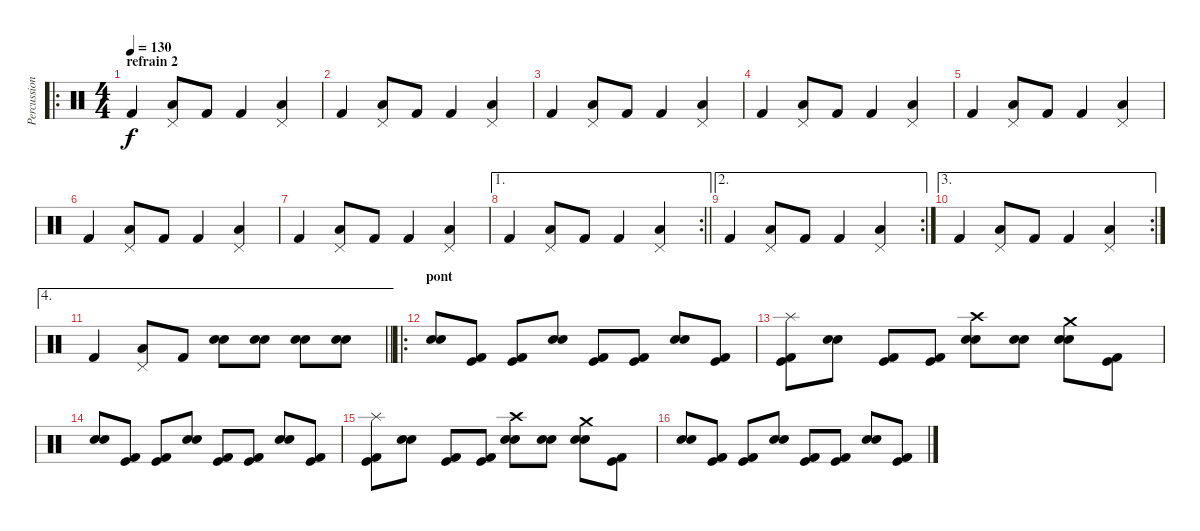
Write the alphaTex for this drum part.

\track ("Percussions" "Percussion") {instrument percussion}
\staff {score}
\articulation defaults
\ro
\ts (4 4)
\section ("" "refrain 2")
\tempo 130
\clef neutral
\ks c "Kick (hit) 2".4{dy f}
("Low Floor Tom (hit)" "Pedal Hi-Hat (hit)").8 "Kick (hit) 2".8 "Kick (hit) 2".4 ("Low Floor Tom (hit)" "Pedal Hi-Hat (hit)").4 |
"Kick (hit) 2".4 ("Low Floor Tom (hit)" "Pedal Hi-Hat (hit)").8 "Kick (hit) 2".8 "Kick (hit) 2".4 ("Low Floor Tom (hit)" "Pedal Hi-Hat (hit)").4 |
"Kick (hit) 2".4 ("Low Floor Tom (hit)" "Pedal Hi-Hat (hit)").8 "Kick (hit) 2".8 "Kick (hit) 2".4 ("Low Floor Tom (hit)" "Pedal Hi-Hat (hit)").4 |
"Kick (hit) 2".4 ("Low Floor Tom (hit)" "Pedal Hi-Hat (hit)").8 "Kick (hit) 2".8 "Kick (hit) 2".4 ("Low Floor Tom (hit)" "Pedal Hi-Hat (hit)").4 |
"Kick (hit) 2".4 ("Low Floor Tom (hit)" "Pedal Hi-Hat (hit)").8 "Kick (hit) 2".8 "Kick (hit) 2".4 ("Low Floor Tom (hit)" "Pedal Hi-Hat (hit)").4 |
"Kick (hit) 2".4 ("Low Floor Tom (hit)" "Pedal Hi-Hat (hit)").8 "Kick (hit) 2".8 "Kick (hit) 2".4 ("Low Floor Tom (hit)" "Pedal Hi-Hat (hit)").4 |
"Kick (hit) 2".4 ("Low Floor Tom (hit)" "Pedal Hi-Hat (hit)").8 "Kick (hit) 2".8 "Kick (hit) 2".4 ("Low Floor Tom (hit)" "Pedal Hi-Hat (hit)").4 |
\ae 1
\rc 2
\barLineRight lightlight "Kick (hit) 2".4
("Low Floor Tom (hit)" "Pedal Hi-Hat (hit)").8 "Kick (hit) 2".8 "Kick (hit) 2".4 ("Low Floor Tom (hit)" "Pedal Hi-Hat (hit)").4 |
\ae 2
\rc 2 "Kick (hit) 2".4
("Low Floor Tom (hit)" "Pedal Hi-Hat (hit)").8 "Kick (hit) 2".8 "Kick (hit) 2".4 ("Low Floor Tom (hit)" "Pedal Hi-Hat (hit)").4 |
\ae 3
\rc 2 "Kick (hit) 2".4
("Low Floor Tom (hit)" "Pedal Hi-Hat (hit)").8 "Kick (hit) 2".8 "Kick (hit) 2".4 ("Low Floor Tom (hit)" "Pedal Hi-Hat (hit)").4 |
\ae 4
\barLineRight lightlight "Kick (hit) 2".4
("Low Floor Tom (hit)" "Pedal Hi-Hat (hit)").8 "Kick (hit) 2".8 ("Electric Snare (hit)" "Snare (hit) 2").8 ("Electric Snare (hit)" "Snare (hit) 2").8 ("Electric Snare (hit)" "Snare (hit) 2").8 ("Electric Snare (hit)" "Snare (hit) 2").8 |
\ro
\section ("" "pont")
("Snare (hit) 2" "Electric Snare (hit)").8 ("Kick (hit) 2" "Kick (hit)").8 ("Kick (hit)" "Kick (hit) 2").8 ("Snare (hit) 2" "Electric Snare (hit)").8 ("Kick (hit) 2" "Kick (hit)").8 ("Kick (hit)" "Kick (hit) 2").8 ("Snare (hit) 2" "Electric Snare (hit)").8 ("Kick (hit) 2" "Kick (hit)").8 |
("Splash (hit)" "Kick (hit)" "Kick (hit) 2").8 ("Snare (hit) 2" "Electric Snare (hit)").8 ("Kick (hit) 2" "Kick (hit)").8 ("Kick (hit)" "Kick (hit) 2").8 ("Crash high (hit)" "Snare (hit) 2" "Electric Snare (hit)").8 ("Snare (hit) 2" "Electric Snare (hit)").8 ("Crash medium (hit)" "Snare (hit) 2" "Electric Snare (hit)").8 ("Kick (hit)" "Kick (hit) 2").8 |
("Snare (hit) 2" "Electric Snare (hit)").8 ("Kick (hit) 2" "Kick (hit)").8 ("Kick (hit)" "Kick (hit) 2").8 ("Snare (hit) 2" "Electric Snare (hit)").8 ("Kick (hit) 2" "Kick (hit)").8 ("Kick (hit)" "Kick (hit) 2").8 ("Snare (hit) 2" "Electric Snare (hit)").8 ("Kick (hit) 2" "Kick (hit)").8 |
("Splash (hit)" "Kick (hit)" "Kick (hit) 2").8 ("Snare (hit) 2" "Electric Snare (hit)").8 ("Kick (hit) 2" "Kick (hit)").8 ("Kick (hit)" "Kick (hit) 2").8 ("Crash high (hit)" "Snare (hit) 2" "Electric Snare (hit)").8 ("Snare (hit) 2" "Electric Snare (hit)").8 ("Crash medium (hit)" "Snare (hit) 2" "Electric Snare (hit)").8 ("Kick (hit)" "Kick (hit) 2").8 |
("Snare (hit) 2" "Electric Snare (hit)").8 ("Kick (hit) 2" "Kick (hit)").8 ("Kick (hit)" "Kick (hit) 2").8 ("Snare (hit) 2" "Electric Snare (hit)").8 ("Kick (hit) 2" "Kick (hit)").8 ("Kick (hit)" "Kick (hit) 2").8 ("Snare (hit) 2" "Electric Snare (hit)").8 ("Kick (hit) 2" "Kick (hit)").8
